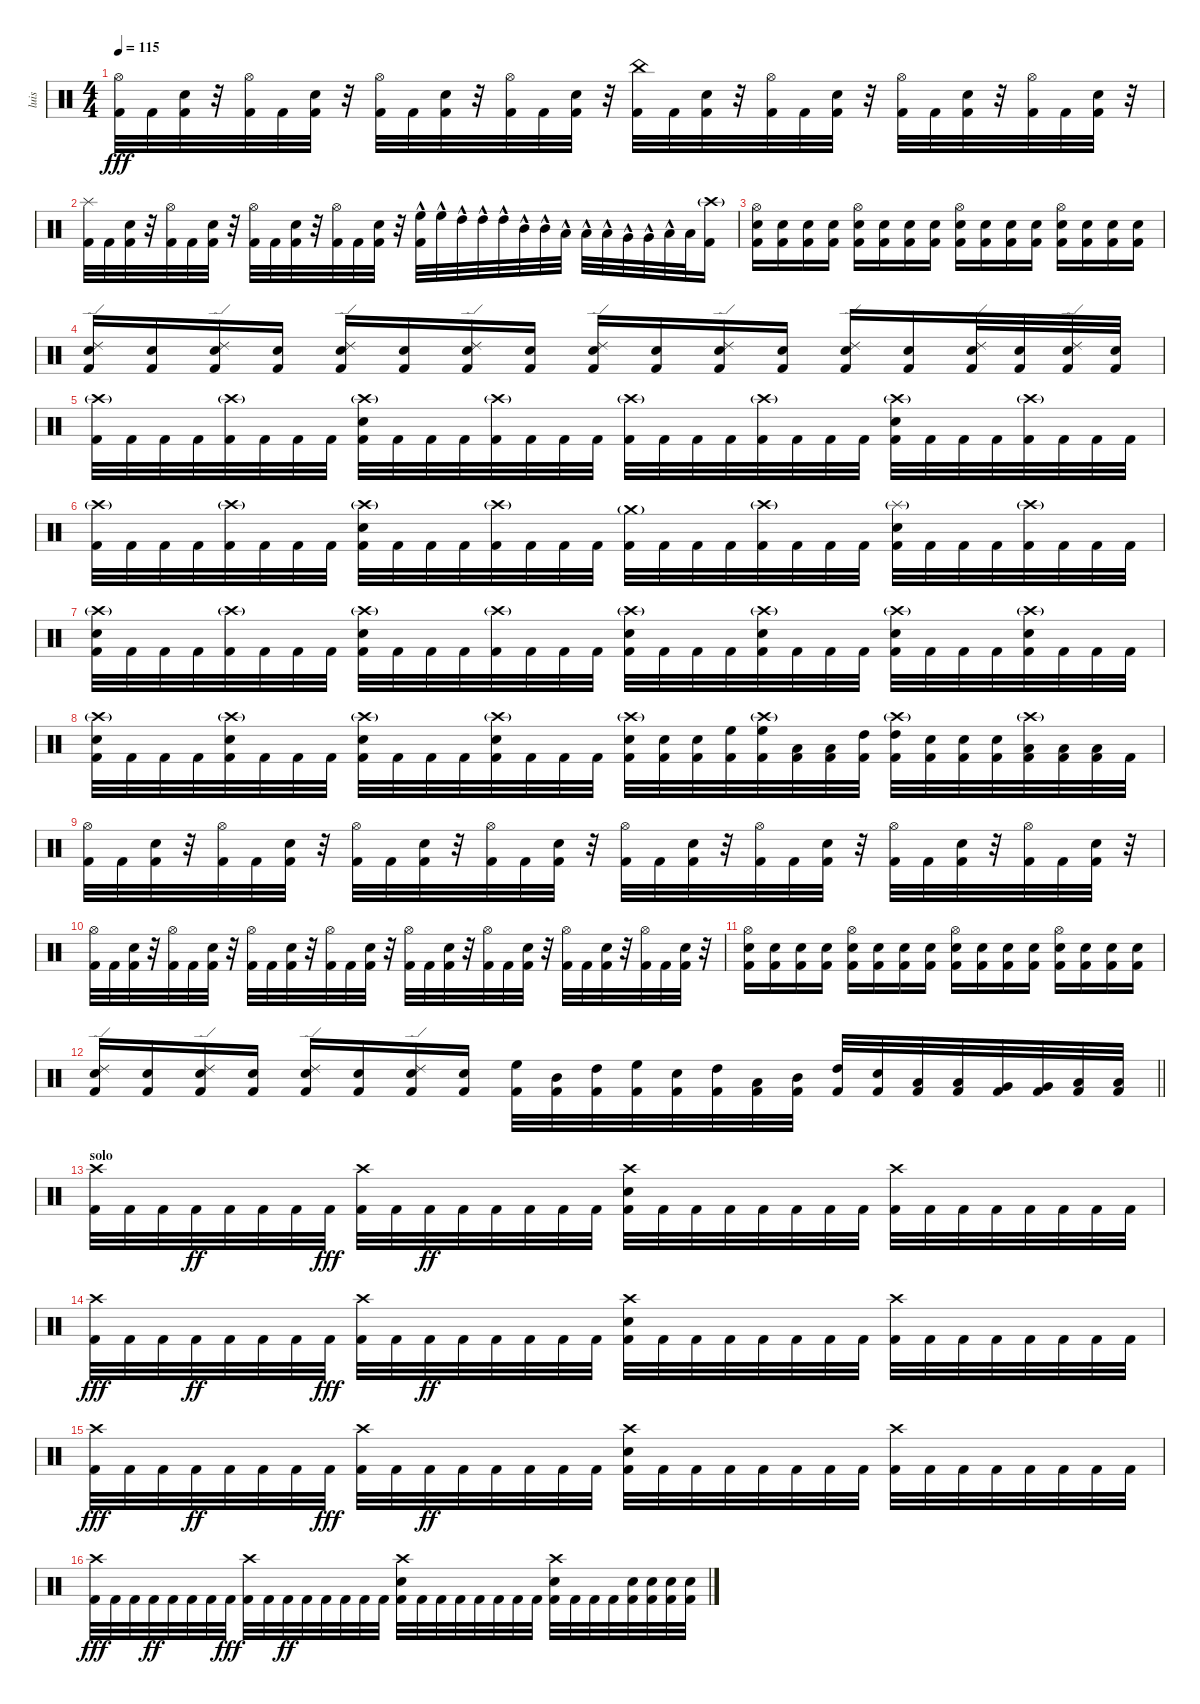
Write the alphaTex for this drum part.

\track ("luis" "luis") {instrument percussion}
\staff {score}
\articulation defaults
\ts (4 4)
\tempo 115
\clef neutral
\ks c
("Hi-Hat (open)" "Kick (hit) 2").32{dy fff} "Kick (hit) 2".32 ("Electric Snare (hit)" "Kick (hit) 2").32 r.32 ("Hi-Hat (open)" "Kick (hit) 2").32 "Kick (hit) 2".32 ("Electric Snare (hit)" "Kick (hit) 2").32 r.32 ("Hi-Hat (open)" "Kick (hit) 2").32 "Kick (hit) 2".32 ("Electric Snare (hit)" "Kick (hit) 2").32 r.32 ("Hi-Hat (open)" "Kick (hit) 2").32 "Kick (hit) 2".32 ("Electric Snare (hit)" "Kick (hit) 2").32 r.32 ("China (hit)" "Kick (hit) 2").32 "Kick (hit) 2".32 ("Electric Snare (hit)" "Kick (hit) 2").32 r.32 ("Hi-Hat (open)" "Kick (hit) 2").32 "Kick (hit) 2".32 ("Electric Snare (hit)" "Kick (hit) 2").32 r.32 ("Hi-Hat (open)" "Kick (hit) 2").32 "Kick (hit) 2".32 ("Electric Snare (hit)" "Kick (hit) 2").32 r.32 ("Hi-Hat (open)" "Kick (hit) 2").32 "Kick (hit) 2".32 ("Electric Snare (hit)" "Kick (hit) 2").32 r.32 |
("Splash (hit)" "Kick (hit) 2").32 "Kick (hit) 2".32 ("Electric Snare (hit)" "Kick (hit) 2").32 r.32 ("Hi-Hat (open)" "Kick (hit) 2").32 "Kick (hit) 2".32 ("Electric Snare (hit)" "Kick (hit) 2").32 r.32 ("Hi-Hat (open)" "Kick (hit) 2").32 "Kick (hit) 2".32 ("Electric Snare (hit)" "Kick (hit) 2").32 r.32 ("Hi-Hat (open)" "Kick (hit) 2").32 "Kick (hit) 2".32 ("Electric Snare (hit)" "Kick (hit) 2").32 r.32 ("High Floor Tom (hit)"{hac} "Kick (hit) 2").32 "High Floor Tom (hit)"{hac}.32 "High Tom (hit)"{hac}.32 "High Tom (hit)"{hac}.32 "High Tom (hit)"{hac}.32 "Mid Tom (hit)"{hac}.32 "Mid Tom (hit)"{hac}.32 "Low Tom (hit)"{hac}.32 "Low Tom (hit)"{hac}.32 "Low Tom (hit)"{hac}.32 "Very Low Tom (hit)"{hac}.32 "Very Low Tom (hit)"{hac}.32 "Low Floor Tom (hit)"{hac}.32 "Low Floor Tom (hit)".32 ("Crash high (hit)"{g} "Kick (hit) 2").16 |
("Hi-Hat (open)" "Electric Snare (hit)" "Kick (hit) 2").16 ("Electric Snare (hit)" "Kick (hit) 2").16 ("Electric Snare (hit)" "Kick (hit) 2").16 ("Electric Snare (hit)" "Kick (hit) 2").16 ("Hi-Hat (open)" "Electric Snare (hit)" "Kick (hit) 2").16 ("Electric Snare (hit)" "Kick (hit) 2").16 ("Electric Snare (hit)" "Kick (hit) 2").16 ("Electric Snare (hit)" "Kick (hit) 2").16 ("Hi-Hat (open)" "Electric Snare (hit)" "Kick (hit) 2").16 ("Electric Snare (hit)" "Kick (hit) 2").16 ("Electric Snare (hit)" "Kick (hit) 2").16 ("Electric Snare (hit)" "Kick (hit) 2").16 ("Hi-Hat (open)" "Electric Snare (hit)" "Kick (hit) 2").16 ("Electric Snare (hit)" "Kick (hit) 2").16 ("Electric Snare (hit)" "Kick (hit) 2").16 ("Electric Snare (hit)" "Kick (hit) 2").16 |
("Ride (edge) 2" "Electric Snare (hit)" "Kick (hit) 2").16 ("Electric Snare (hit)" "Kick (hit) 2").16 ("Ride (edge) 2" "Electric Snare (hit)" "Kick (hit) 2").16 ("Electric Snare (hit)" "Kick (hit) 2").16 ("Ride (edge) 2" "Electric Snare (hit)" "Kick (hit) 2").16 ("Electric Snare (hit)" "Kick (hit) 2").16 ("Ride (edge) 2" "Electric Snare (hit)" "Kick (hit) 2").16 ("Electric Snare (hit)" "Kick (hit) 2").16 ("Ride (edge) 2" "Electric Snare (hit)" "Kick (hit) 2").16 ("Electric Snare (hit)" "Kick (hit) 2").16 ("Ride (edge) 2" "Electric Snare (hit)" "Kick (hit) 2").16 ("Electric Snare (hit)" "Kick (hit) 2").16 ("Ride (edge) 2" "Electric Snare (hit)" "Kick (hit) 2").16 ("Electric Snare (hit)" "Kick (hit) 2").16 ("Ride (edge) 2" "Electric Snare (hit)" "Kick (hit) 2").32 ("Electric Snare (hit)" "Kick (hit) 2").32 ("Ride (edge) 2" "Electric Snare (hit)" "Kick (hit) 2").32 ("Electric Snare (hit)" "Kick (hit) 2").32 |
("Crash high (hit)"{g} "Kick (hit) 2").32 "Kick (hit) 2".32 "Kick (hit) 2".32 "Kick (hit) 2".32 ("Crash high (hit)"{g} "Kick (hit) 2").32 "Kick (hit) 2".32 "Kick (hit) 2".32 "Kick (hit) 2".32 ("Crash high (hit)"{g} "Electric Snare (hit)" "Kick (hit) 2").32 "Kick (hit) 2".32 "Kick (hit) 2".32 "Kick (hit) 2".32 ("Crash high (hit)"{g} "Kick (hit) 2").32 "Kick (hit) 2".32 "Kick (hit) 2".32 "Kick (hit) 2".32 ("Crash high (hit)"{g} "Kick (hit) 2").32 "Kick (hit) 2".32 "Kick (hit) 2".32 "Kick (hit) 2".32 ("Crash high (hit)"{g} "Kick (hit) 2").32 "Kick (hit) 2".32 "Kick (hit) 2".32 "Kick (hit) 2".32 ("Crash high (hit)"{g} "Electric Snare (hit)" "Kick (hit) 2").32 "Kick (hit) 2".32 "Kick (hit) 2".32 "Kick (hit) 2".32 ("Crash high (hit)"{g} "Kick (hit) 2").32 "Kick (hit) 2".32 "Kick (hit) 2".32 "Kick (hit) 2".32 |
("Crash high (hit)"{g} "Kick (hit) 2").32 "Kick (hit) 2".32 "Kick (hit) 2".32 "Kick (hit) 2".32 ("Crash high (hit)"{g} "Kick (hit) 2").32 "Kick (hit) 2".32 "Kick (hit) 2".32 "Kick (hit) 2".32 ("Crash high (hit)"{g} "Electric Snare (hit)" "Kick (hit) 2").32 "Kick (hit) 2".32 "Kick (hit) 2".32 "Kick (hit) 2".32 ("Crash high (hit)"{g} "Kick (hit) 2").32 "Kick (hit) 2".32 "Kick (hit) 2".32 "Kick (hit) 2".32 ("Crash medium (hit)"{g} "Kick (hit) 2").32 "Kick (hit) 2".32 "Kick (hit) 2".32 "Kick (hit) 2".32 ("Crash high (hit)"{g} "Kick (hit) 2").32 "Kick (hit) 2".32 "Kick (hit) 2".32 "Kick (hit) 2".32 ("Splash (hit)"{g} "Electric Snare (hit)" "Kick (hit) 2").32 "Kick (hit) 2".32 "Kick (hit) 2".32 "Kick (hit) 2".32 ("Crash high (hit)"{g} "Kick (hit) 2").32 "Kick (hit) 2".32 "Kick (hit) 2".32 "Kick (hit) 2".32 |
("Crash high (hit)"{g} "Electric Snare (hit)" "Kick (hit) 2").32 "Kick (hit) 2".32 "Kick (hit) 2".32 "Kick (hit) 2".32 ("Crash high (hit)"{g} "Kick (hit) 2").32 "Kick (hit) 2".32 "Kick (hit) 2".32 "Kick (hit) 2".32 ("Crash high (hit)"{g} "Electric Snare (hit)" "Kick (hit) 2").32 "Kick (hit) 2".32 "Kick (hit) 2".32 "Kick (hit) 2".32 ("Crash high (hit)"{g} "Kick (hit) 2").32 "Kick (hit) 2".32 "Kick (hit) 2".32 "Kick (hit) 2".32 ("Crash high (hit)"{g} "Electric Snare (hit)" "Kick (hit) 2").32 "Kick (hit) 2".32 "Kick (hit) 2".32 "Kick (hit) 2".32 ("Crash high (hit)"{g} "Electric Snare (hit)" "Kick (hit) 2").32 "Kick (hit) 2".32 "Kick (hit) 2".32 "Kick (hit) 2".32 ("Crash high (hit)"{g} "Electric Snare (hit)" "Kick (hit) 2").32 "Kick (hit) 2".32 "Kick (hit) 2".32 "Kick (hit) 2".32 ("Crash high (hit)"{g} "Electric Snare (hit)" "Kick (hit) 2").32 "Kick (hit) 2".32 "Kick (hit) 2".32 "Kick (hit) 2".32 |
("Crash high (hit)"{g} "Electric Snare (hit)" "Kick (hit) 2").32 "Kick (hit) 2".32 "Kick (hit) 2".32 "Kick (hit) 2".32 ("Crash high (hit)"{g} "Electric Snare (hit)" "Kick (hit) 2").32 "Kick (hit) 2".32 "Kick (hit) 2".32 "Kick (hit) 2".32 ("Crash high (hit)"{g} "Electric Snare (hit)" "Kick (hit) 2").32 "Kick (hit) 2".32 "Kick (hit) 2".32 "Kick (hit) 2".32 ("Crash high (hit)"{g} "Electric Snare (hit)" "Kick (hit) 2").32 "Kick (hit) 2".32 "Kick (hit) 2".32 "Kick (hit) 2".32 ("Crash high (hit)"{g} "Electric Snare (hit)" "Kick (hit) 2").32 ("Electric Snare (hit)" "Kick (hit) 2").32 ("Electric Snare (hit)" "Kick (hit) 2").32 ("High Floor Tom (hit)" "Kick (hit) 2").32 ("Crash high (hit)"{g} "High Floor Tom (hit)" "Kick (hit) 2").32 ("Low Tom (hit)" "Kick (hit) 2").32 ("Low Tom (hit)" "Kick (hit) 2").32 ("High Tom (hit)" "Kick (hit) 2").32 ("Crash high (hit)"{g} "High Tom (hit)" "Kick (hit) 2").32 ("Electric Snare (hit)" "Kick (hit) 2").32 ("Electric Snare (hit)" "Kick (hit) 2").32 ("Electric Snare (hit)" "Kick (hit) 2").32 ("Crash high (hit)"{g} "Low Floor Tom (hit)" "Kick (hit) 2").32 ("Low Floor Tom (hit)" "Kick (hit) 2").32 ("Low Tom (hit)" "Kick (hit) 2").32 "Kick (hit) 2".32 |
("Hi-Hat (open)" "Kick (hit) 2").32 "Kick (hit) 2".32 ("Electric Snare (hit)" "Kick (hit) 2").32 r.32 ("Hi-Hat (open)" "Kick (hit) 2").32 "Kick (hit) 2".32 ("Electric Snare (hit)" "Kick (hit) 2").32 r.32 ("Hi-Hat (open)" "Kick (hit) 2").32 "Kick (hit) 2".32 ("Electric Snare (hit)" "Kick (hit) 2").32 r.32 ("Hi-Hat (open)" "Kick (hit) 2").32 "Kick (hit) 2".32 ("Electric Snare (hit)" "Kick (hit) 2").32 r.32 ("Hi-Hat (open)" "Kick (hit) 2").32 "Kick (hit) 2".32 ("Electric Snare (hit)" "Kick (hit) 2").32 r.32 ("Hi-Hat (open)" "Kick (hit) 2").32 "Kick (hit) 2".32 ("Electric Snare (hit)" "Kick (hit) 2").32 r.32 ("Hi-Hat (open)" "Kick (hit) 2").32 "Kick (hit) 2".32 ("Electric Snare (hit)" "Kick (hit) 2").32 r.32 ("Hi-Hat (open)" "Kick (hit) 2").32 "Kick (hit) 2".32 ("Electric Snare (hit)" "Kick (hit) 2").32 r.32 |
("Hi-Hat (open)" "Kick (hit) 2").32 "Kick (hit) 2".32 ("Electric Snare (hit)" "Kick (hit) 2").32 r.32 ("Hi-Hat (open)" "Kick (hit) 2").32 "Kick (hit) 2".32 ("Electric Snare (hit)" "Kick (hit) 2").32 r.32 ("Hi-Hat (open)" "Kick (hit) 2").32 "Kick (hit) 2".32 ("Electric Snare (hit)" "Kick (hit) 2").32 r.32 ("Hi-Hat (open)" "Kick (hit) 2").32 "Kick (hit) 2".32 ("Electric Snare (hit)" "Kick (hit) 2").32 r.32 ("Hi-Hat (open)" "Kick (hit) 2").32 "Kick (hit) 2".32 ("Electric Snare (hit)" "Kick (hit) 2").32 r.32 ("Hi-Hat (open)" "Kick (hit) 2").32 "Kick (hit) 2".32 ("Electric Snare (hit)" "Kick (hit) 2").32 r.32 ("Hi-Hat (open)" "Kick (hit) 2").32 "Kick (hit) 2".32 ("Electric Snare (hit)" "Kick (hit) 2").32 r.32 ("Hi-Hat (open)" "Kick (hit) 2").32 "Kick (hit) 2".32 ("Electric Snare (hit)" "Kick (hit) 2").32 r.32 |
("Hi-Hat (open)" "Electric Snare (hit)" "Kick (hit) 2").16 ("Electric Snare (hit)" "Kick (hit) 2").16 ("Electric Snare (hit)" "Kick (hit) 2").16 ("Electric Snare (hit)" "Kick (hit) 2").16 ("Hi-Hat (open)" "Electric Snare (hit)" "Kick (hit) 2").16 ("Electric Snare (hit)" "Kick (hit) 2").16 ("Electric Snare (hit)" "Kick (hit) 2").16 ("Electric Snare (hit)" "Kick (hit) 2").16 ("Hi-Hat (open)" "Electric Snare (hit)" "Kick (hit) 2").16 ("Electric Snare (hit)" "Kick (hit) 2").16 ("Electric Snare (hit)" "Kick (hit) 2").16 ("Electric Snare (hit)" "Kick (hit) 2").16 ("Hi-Hat (open)" "Electric Snare (hit)" "Kick (hit) 2").16 ("Electric Snare (hit)" "Kick (hit) 2").16 ("Electric Snare (hit)" "Kick (hit) 2").16 ("Electric Snare (hit)" "Kick (hit) 2").16 |
\barLineRight lightlight
("Ride (edge) 2" "Electric Snare (hit)" "Kick (hit) 2").16 ("Electric Snare (hit)" "Kick (hit) 2").16 ("Ride (edge) 2" "Electric Snare (hit)" "Kick (hit) 2").16 ("Electric Snare (hit)" "Kick (hit) 2").16 ("Ride (edge) 2" "Electric Snare (hit)" "Kick (hit) 2").16 ("Electric Snare (hit)" "Kick (hit) 2").16 ("Ride (edge) 2" "Electric Snare (hit)" "Kick (hit) 2").16 ("Electric Snare (hit)" "Kick (hit) 2").16 ("High Floor Tom (hit)" "Kick (hit) 2").32 ("Mid Tom (hit)" "Kick (hit) 2").32 ("High Tom (hit)" "Kick (hit) 2").32 ("High Floor Tom (hit)" "Kick (hit) 2").32 ("Electric Snare (hit)" "Kick (hit) 2").32 ("High Tom (hit)" "Kick (hit) 2").32 ("Low Tom (hit)" "Kick (hit) 2").32 ("Mid Tom (hit)" "Kick (hit) 2").32 ("High Tom (hit)" "Kick (hit) 2").32 ("Electric Snare (hit)" "Kick (hit) 2").32 ("Low Tom (hit)" "Kick (hit) 2").32 ("Low Tom (hit)" "Kick (hit) 2").32 ("Very Low Tom (hit)" "Kick (hit) 2").32 ("Very Low Tom (hit)" "Kick (hit) 2").32 ("Low Floor Tom (hit)" "Kick (hit) 2").32 ("Low Floor Tom (hit)" "Kick (hit) 2").32 |
\section ("" "solo")
("Crash high (hit)" "Kick (hit) 2").32 "Kick (hit) 2".32 "Kick (hit) 2".32 "Kick (hit) 2".32{dy ff} "Kick (hit) 2".32 "Kick (hit) 2".32 "Kick (hit) 2".32 "Kick (hit) 2".32{dy fff} ("Crash high (hit)" "Kick (hit) 2").32 "Kick (hit) 2".32 "Kick (hit) 2".32{dy ff} "Kick (hit) 2".32 "Kick (hit) 2".32 "Kick (hit) 2".32 "Kick (hit) 2".32 "Kick (hit) 2".32 ("Crash high (hit)" "Electric Snare (hit)" "Kick (hit) 2").32 "Kick (hit) 2".32 "Kick (hit) 2".32 "Kick (hit) 2".32 "Kick (hit) 2".32 "Kick (hit) 2".32 "Kick (hit) 2".32 "Kick (hit) 2".32 ("Crash high (hit)" "Kick (hit) 2").32 "Kick (hit) 2".32 "Kick (hit) 2".32 "Kick (hit) 2".32 "Kick (hit) 2".32 "Kick (hit) 2".32 "Kick (hit) 2".32 "Kick (hit) 2".32 |
("Crash high (hit)" "Kick (hit) 2").32{dy fff} "Kick (hit) 2".32 "Kick (hit) 2".32 "Kick (hit) 2".32{dy ff} "Kick (hit) 2".32 "Kick (hit) 2".32 "Kick (hit) 2".32 "Kick (hit) 2".32{dy fff} ("Crash high (hit)" "Kick (hit) 2").32 "Kick (hit) 2".32 "Kick (hit) 2".32{dy ff} "Kick (hit) 2".32 "Kick (hit) 2".32 "Kick (hit) 2".32 "Kick (hit) 2".32 "Kick (hit) 2".32 ("Crash high (hit)" "Electric Snare (hit)" "Kick (hit) 2").32 "Kick (hit) 2".32 "Kick (hit) 2".32 "Kick (hit) 2".32 "Kick (hit) 2".32 "Kick (hit) 2".32 "Kick (hit) 2".32 "Kick (hit) 2".32 ("Crash high (hit)" "Kick (hit) 2").32 "Kick (hit) 2".32 "Kick (hit) 2".32 "Kick (hit) 2".32 "Kick (hit) 2".32 "Kick (hit) 2".32 "Kick (hit) 2".32 "Kick (hit) 2".32 |
("Crash high (hit)" "Kick (hit) 2").32{dy fff} "Kick (hit) 2".32 "Kick (hit) 2".32 "Kick (hit) 2".32{dy ff} "Kick (hit) 2".32 "Kick (hit) 2".32 "Kick (hit) 2".32 "Kick (hit) 2".32{dy fff} ("Crash high (hit)" "Kick (hit) 2").32 "Kick (hit) 2".32 "Kick (hit) 2".32{dy ff} "Kick (hit) 2".32 "Kick (hit) 2".32 "Kick (hit) 2".32 "Kick (hit) 2".32 "Kick (hit) 2".32 ("Crash high (hit)" "Electric Snare (hit)" "Kick (hit) 2").32 "Kick (hit) 2".32 "Kick (hit) 2".32 "Kick (hit) 2".32 "Kick (hit) 2".32 "Kick (hit) 2".32 "Kick (hit) 2".32 "Kick (hit) 2".32 ("Crash high (hit)" "Kick (hit) 2").32 "Kick (hit) 2".32 "Kick (hit) 2".32 "Kick (hit) 2".32 "Kick (hit) 2".32 "Kick (hit) 2".32 "Kick (hit) 2".32 "Kick (hit) 2".32 |
("Crash high (hit)" "Kick (hit) 2").32{dy fff} "Kick (hit) 2".32 "Kick (hit) 2".32 "Kick (hit) 2".32{dy ff} "Kick (hit) 2".32 "Kick (hit) 2".32 "Kick (hit) 2".32 "Kick (hit) 2".32{dy fff} ("Crash high (hit)" "Kick (hit) 2").32 "Kick (hit) 2".32 "Kick (hit) 2".32{dy ff} "Kick (hit) 2".32 "Kick (hit) 2".32 "Kick (hit) 2".32 "Kick (hit) 2".32 "Kick (hit) 2".32 ("Crash high (hit)" "Electric Snare (hit)" "Kick (hit) 2").32 "Kick (hit) 2".32 "Kick (hit) 2".32 "Kick (hit) 2".32 "Kick (hit) 2".32 "Kick (hit) 2".32 "Kick (hit) 2".32 "Kick (hit) 2".32 ("Crash high (hit)" "Electric Snare (hit)" "Kick (hit) 2").32 "Kick (hit) 2".32 "Kick (hit) 2".32 "Kick (hit) 2".32 ("Electric Snare (hit)" "Kick (hit) 2").32 ("Electric Snare (hit)" "Kick (hit) 2").32 ("Electric Snare (hit)" "Kick (hit) 2").32 ("Electric Snare (hit)" "Kick (hit) 2").32
